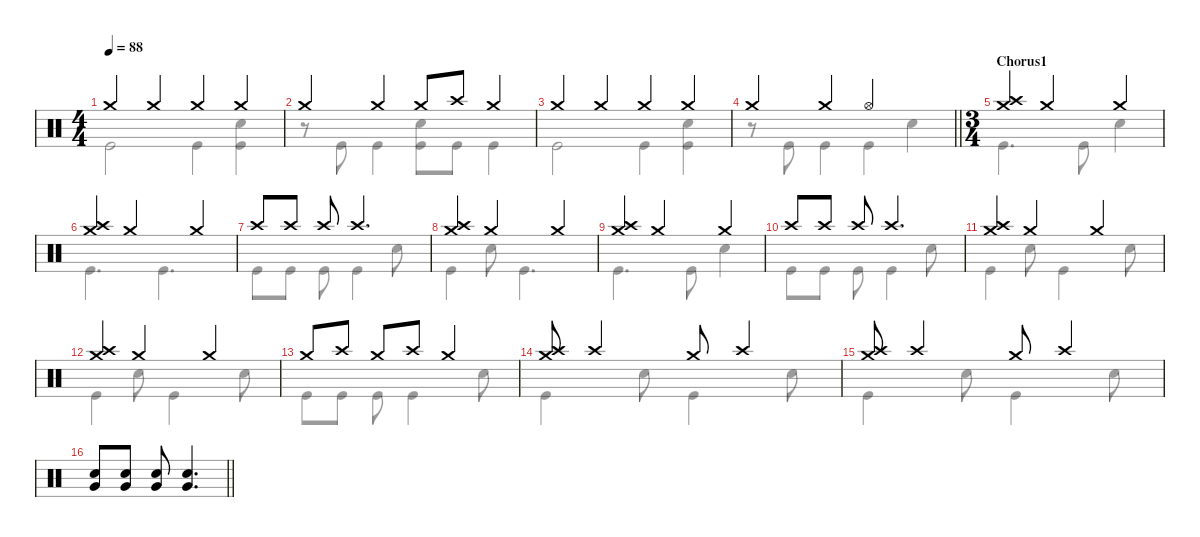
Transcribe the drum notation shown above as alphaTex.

\defaultSystemsLayout 4
\hideDynamics
\bracketExtendMode nobrackets
\singleTrackTrackNamePolicy hidden
\multiTrackTrackNamePolicy hidden
\firstSystemTrackNameMode fullname
\otherSystemsTrackNameOrientation horizontal
\track ("Drums" "drm.") {instrument percussion}
\staff {score}
\articulation defaults
\voice
\ts (4 4)
\tempo 88
\clef neutral
\ks c "Crash medium (hit)".4{dy f beam Up} "Crash medium (hit)".4{beam Up} "Crash medium (hit)".4{beam Up} "Crash medium (hit)".4{beam Up}
|
"Crash medium (hit)".4{beam Up} "Crash medium (hit)".4{beam Up} "Crash medium (hit)".8{beam Up} "Crash high (hit)".8{beam Up} "Crash medium (hit)".4{beam Up} |
"Crash medium (hit)".4{beam Up} "Crash medium (hit)".4{beam Up} "Crash medium (hit)".4{beam Up} "Crash medium (hit)".4{beam Up} |
\barLineRight lightlight "Crash medium (hit)".4{beam Up} "Crash medium (hit)".4{beam Up} "Hi-Hat (open)".2{beam Up}
|
\ts (3 4)
\beaming (8 2 2 2)
\section ("" "Chorus1")
("Crash medium (hit)" "Crash high (hit)").4{beam Up} "Crash medium (hit)".4{beam Up} "Crash medium (hit)".4{beam Up} |
("Crash medium (hit)" "Crash high (hit)").4{beam Up} "Crash medium (hit)".4{beam Up} "Crash medium (hit)".4{beam Up} |
"Crash high (hit)".8{beam Up} "Crash high (hit)".8{beam Up} "Crash high (hit)".8{beam Up} "Crash high (hit)".4{d beam Up} |
("Crash medium (hit)" "Crash high (hit)").4{beam Up} "Crash medium (hit)".4{beam Up} "Crash medium (hit)".4{beam Up} |
("Crash medium (hit)" "Crash high (hit)").4{beam Up} "Crash medium (hit)".4{beam Up} "Crash medium (hit)".4{beam Up} |
"Crash high (hit)".8{beam Up} "Crash high (hit)".8{beam Up} "Crash high (hit)".8{beam Up} "Crash high (hit)".4{d beam Up} |
("Crash medium (hit)" "Crash high (hit)").4{beam Up} "Crash medium (hit)".4{beam Up} "Crash medium (hit)".4{beam Up} |
("Crash medium (hit)" "Crash high (hit)").4{beam Up} "Crash medium (hit)".4{beam Up} "Crash medium (hit)".4{beam Up} |
"Crash medium (hit)".8{beam Up} "Crash high (hit)".8{beam Up} "Crash medium (hit)".8{beam Up} "Crash high (hit)".8{beam Up} "Crash medium (hit)".4{beam Up} |
("Crash medium (hit)" "Crash high (hit)").8{beam Up} "Crash high (hit)".4{dy mp beam Up} "Crash medium (hit)".8{dy f beam Up} "Crash high (hit)".4{dy mp beam Up} |
("Crash medium (hit)" "Crash high (hit)").8{dy f beam Up} "Crash high (hit)".4{dy mp beam Up} "Crash medium (hit)".8{dy f beam Up} "Crash high (hit)".4{dy mp beam Up} |
\barLineRight lightlight
("Snare (hit) 2" "Very Low Tom (hit)").8{dy f beam Up} ("Snare (hit) 2" "Very Low Tom (hit)").8{beam Up} ("Snare (hit) 2" "Very Low Tom (hit)").8{beam Up} ("Snare (hit) 2" "Very Low Tom (hit)").4{d beam Up}
\voice
\clef neutral
\ottava regular
\simile none
\ks c "Kick (hit)".2{dy f beam Down} "Kick (hit)".4{beam Down}
("Snare (hit) 2" "Kick (hit)").4{beam Down} |
r.8{beam Down} "Kick (hit)".8{beam Down} "Kick (hit)".4{beam Down} ("Snare (hit) 2" "Kick (hit)").8{beam Down} "Kick (hit)".8{beam Down} "Kick (hit)".4{beam Down} |
"Kick (hit)".2{beam Down} "Kick (hit)".4{beam Down} ("Snare (hit) 2" "Kick (hit)").4{beam Down} |
\barLineRight lightlight
r.8{beam Down} "Kick (hit)".8{beam Down} "Kick (hit)".4{beam Down} "Kick (hit)".4{beam Down} "Snare (hit) 2".4{beam Down} |
"Kick (hit)".4{d beam Down} "Kick (hit)".8{beam Down} "Snare (hit) 2".4{beam Down} |
"Kick (hit)".4{d beam Down} "Kick (hit)".4{d beam Down} |
"Kick (hit)".8{beam Down} "Kick (hit)".8{beam Down} "Kick (hit)".8{beam Down} "Kick (hit)".4{beam Down} "Snare (hit) 2".8{beam Down} |
"Kick (hit)".4{beam Down} "Snare (hit) 2".8{beam Down} "Kick (hit)".4{d beam Down} |
"Kick (hit)".4{d beam Down} "Kick (hit)".8{beam Down} "Snare (hit) 2".4{beam Down} |
"Kick (hit)".8{beam Down} "Kick (hit)".8{beam Down} "Kick (hit)".8{beam Down} "Kick (hit)".4{beam Down} "Snare (hit) 2".8{beam Down} |
"Kick (hit)".4{beam Down} "Snare (hit) 2".8{beam Down} "Kick (hit)".4{beam Down} "Snare (hit) 2".8{beam Down} |
"Kick (hit)".4{beam Down} "Snare (hit) 2".8{beam Down} "Kick (hit)".4{beam Down} "Snare (hit) 2".8{beam Down} |
"Kick (hit)".8{beam Down} "Kick (hit)".8{beam Down} "Kick (hit)".8{beam Down} "Kick (hit)".4{beam Down} "Snare (hit) 2".8{beam Down} |
"Kick (hit)".4{beam Down} "Snare (hit) 2".8{beam Down} "Kick (hit)".4{beam Down} "Snare (hit) 2".8{beam Down} |
"Kick (hit)".4{beam Down} "Snare (hit) 2".8{beam Down} "Kick (hit)".4{beam Down} "Snare (hit) 2".8{beam Down} |
\barLineRight lightlight
